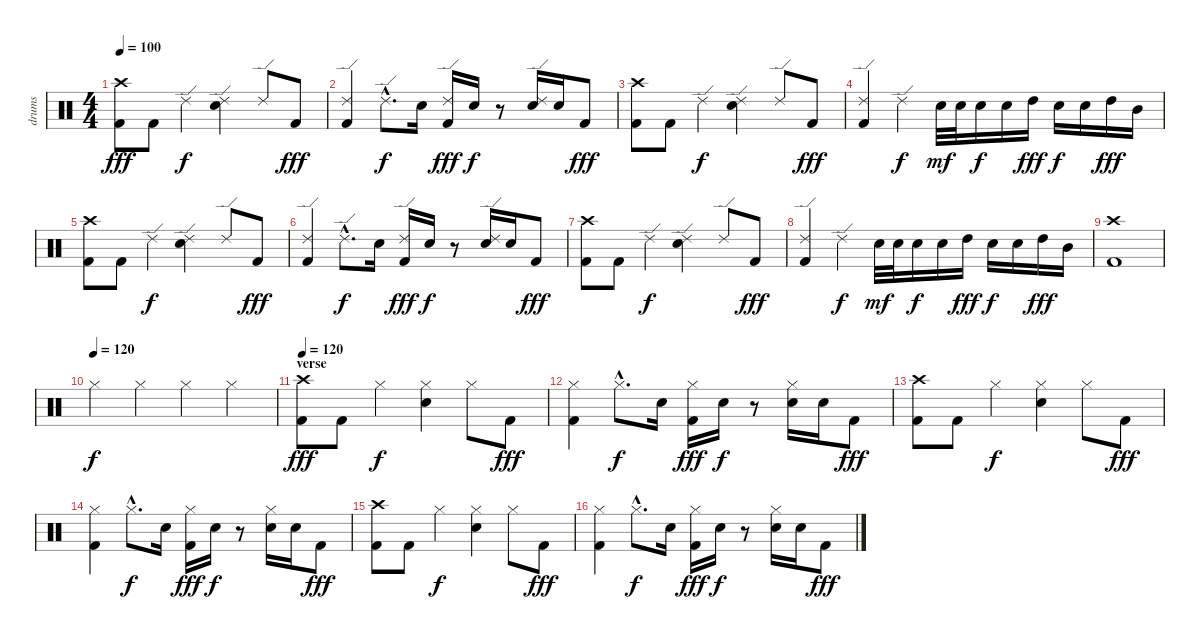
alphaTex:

\track ("drums" "drums") {instrument percussion}
\staff {score}
\articulation defaults
\ts (4 4)
\tempo 100
\clef neutral
\ks c
("Crash high (hit)" "Kick (hit) 2").8{dy fff} "Kick (hit) 2".8 "Ride (edge) 2".4{dy f} ("Ride (edge) 2" "Snare (hit) 2").4 "Ride (edge) 2".8 "Kick (hit) 2".8{dy fff} |
("Ride (edge) 2" "Kick (hit) 2").4 "Ride (edge) 2"{hac}.8{d dy f} "Snare (hit) 2".16 ("Ride (edge) 2" "Kick (hit) 2").16{dy fff} "Snare (hit) 2".16{dy f} r.8 ("Ride (edge) 2" "Snare (hit) 2").16 "Snare (hit) 2".16 "Kick (hit) 2".8{dy fff} |
("Crash high (hit)" "Kick (hit) 2").8 "Kick (hit) 2".8 "Ride (edge) 2".4{dy f} ("Ride (edge) 2" "Snare (hit) 2").4 "Ride (edge) 2".8 "Kick (hit) 2".8{dy fff} |
("Ride (edge) 2" "Kick (hit) 2").4 "Ride (edge) 2".4{dy f} "Snare (hit) 2".32{dy mf} "Snare (hit) 2".32 "Snare (hit) 2".16{dy f} "Snare (hit) 2".16 "High Tom (hit)".16{dy fff} "Snare (hit) 2".16{dy f} "Snare (hit) 2".16 "High Tom (hit)".16{dy fff} "Mid Tom (hit)".16 |
("Crash high (hit)" "Kick (hit) 2").8 "Kick (hit) 2".8 "Ride (edge) 2".4{dy f} ("Ride (edge) 2" "Snare (hit) 2").4 "Ride (edge) 2".8 "Kick (hit) 2".8{dy fff} |
("Ride (edge) 2" "Kick (hit) 2").4 "Ride (edge) 2"{hac}.8{d dy f} "Snare (hit) 2".16 ("Ride (edge) 2" "Kick (hit) 2").16{dy fff} "Snare (hit) 2".16{dy f} r.8 ("Ride (edge) 2" "Snare (hit) 2").16 "Snare (hit) 2".16 "Kick (hit) 2".8{dy fff} |
("Crash high (hit)" "Kick (hit) 2").8 "Kick (hit) 2".8 "Ride (edge) 2".4{dy f} ("Ride (edge) 2" "Snare (hit) 2").4 "Ride (edge) 2".8 "Kick (hit) 2".8{dy fff} |
("Ride (edge) 2" "Kick (hit) 2").4 "Ride (edge) 2".4{dy f} "Snare (hit) 2".32{dy mf} "Snare (hit) 2".32 "Snare (hit) 2".16{dy f} "Snare (hit) 2".16 "High Tom (hit)".16{dy fff} "Snare (hit) 2".16{dy f} "Snare (hit) 2".16 "High Tom (hit)".16{dy fff} "Mid Tom (hit)".16 |
("Crash high (hit)" "Kick (hit) 2").1 |
\tempo (120)
"Hi-Hat (closed)".4{dy f} "Hi-Hat (closed)".4 "Hi-Hat (closed)".4 "Hi-Hat (closed)".4 |
\section ("" "verse")
\tempo 120
("Crash high (hit)" "Kick (hit) 2").8{dy fff} "Kick (hit) 2".8 "Hi-Hat (closed)".4{dy f} ("Hi-Hat (closed)" "Snare (hit) 2").4 "Hi-Hat (closed)".8 "Kick (hit) 2".8{dy fff} |
("Hi-Hat (closed)" "Kick (hit) 2").4 "Hi-Hat (closed)"{hac}.8{d dy f} "Snare (hit) 2".16 ("Hi-Hat (closed)" "Kick (hit) 2").16{dy fff} "Snare (hit) 2".16{dy f} r.8 ("Hi-Hat (closed)" "Snare (hit) 2").16 "Snare (hit) 2".16 "Kick (hit) 2".8{dy fff} |
("Crash high (hit)" "Kick (hit) 2").8 "Kick (hit) 2".8 "Hi-Hat (closed)".4{dy f} ("Hi-Hat (closed)" "Snare (hit) 2").4 "Hi-Hat (closed)".8 "Kick (hit) 2".8{dy fff} |
("Hi-Hat (closed)" "Kick (hit) 2").4 "Hi-Hat (closed)"{hac}.8{d dy f} "Snare (hit) 2".16 ("Hi-Hat (closed)" "Kick (hit) 2").16{dy fff} "Snare (hit) 2".16{dy f} r.8 ("Hi-Hat (closed)" "Snare (hit) 2").16 "Snare (hit) 2".16 "Kick (hit) 2".8{dy fff} |
("Crash high (hit)" "Kick (hit) 2").8 "Kick (hit) 2".8 "Hi-Hat (closed)".4{dy f} ("Hi-Hat (closed)" "Snare (hit) 2").4 "Hi-Hat (closed)".8 "Kick (hit) 2".8{dy fff} |
("Hi-Hat (closed)" "Kick (hit) 2").4 "Hi-Hat (closed)"{hac}.8{d dy f} "Snare (hit) 2".16 ("Hi-Hat (closed)" "Kick (hit) 2").16{dy fff} "Snare (hit) 2".16{dy f} r.8 ("Hi-Hat (closed)" "Snare (hit) 2").16 "Snare (hit) 2".16 "Kick (hit) 2".8{dy fff}
